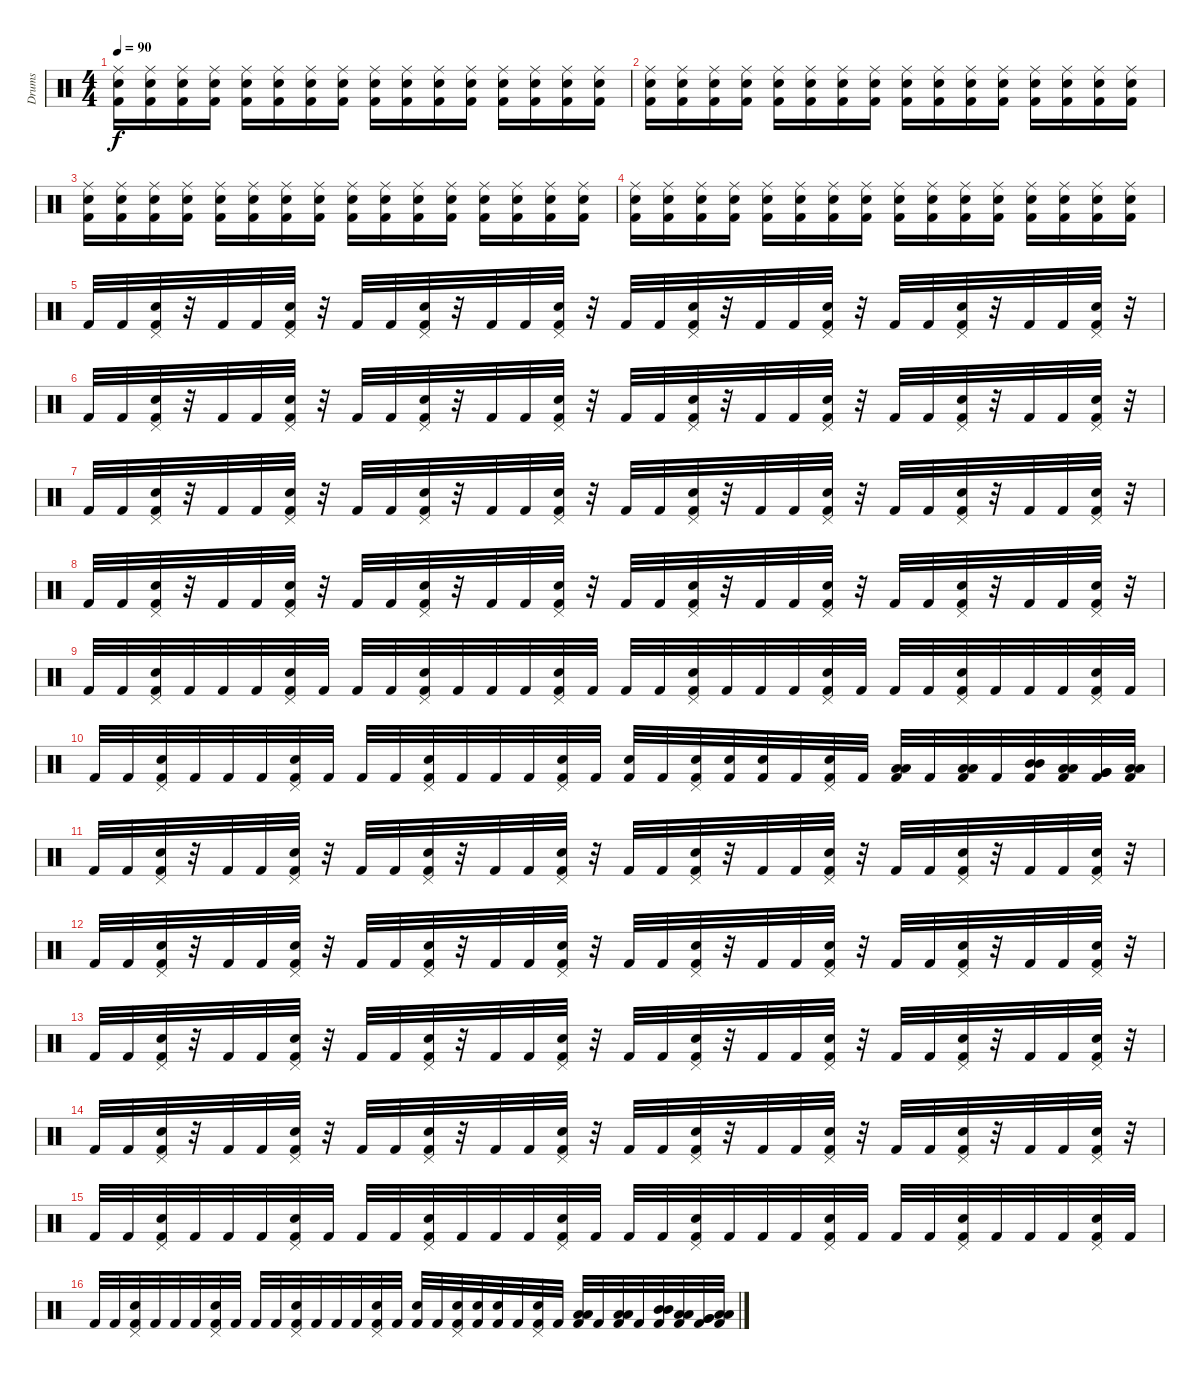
\track ("Drums" "Drums") {instrument percussion}
\staff {score}
\articulation defaults
\ts (4 4)
\tempo 90
\clef neutral
\ks c
("Ride (middle)" "Snare (hit) 2" "Kick (hit) 2").16{dy f} ("Ride (middle)" "Snare (hit) 2" "Kick (hit) 2").16 ("Ride (middle)" "Snare (hit) 2" "Kick (hit) 2").16 ("Ride (middle)" "Snare (hit) 2" "Kick (hit) 2").16 ("Ride (middle)" "Snare (hit) 2" "Kick (hit) 2").16 ("Ride (middle)" "Snare (hit) 2" "Kick (hit) 2").16 ("Ride (middle)" "Snare (hit) 2" "Kick (hit) 2").16 ("Ride (middle)" "Snare (hit) 2" "Kick (hit) 2").16 ("Ride (middle)" "Snare (hit) 2" "Kick (hit) 2").16 ("Ride (middle)" "Snare (hit) 2" "Kick (hit) 2").16 ("Ride (middle)" "Snare (hit) 2" "Kick (hit) 2").16 ("Ride (middle)" "Snare (hit) 2" "Kick (hit) 2").16 ("Ride (middle)" "Snare (hit) 2" "Kick (hit) 2").16 ("Ride (middle)" "Snare (hit) 2" "Kick (hit) 2").16 ("Ride (middle)" "Snare (hit) 2" "Kick (hit) 2").16 ("Ride (middle)" "Snare (hit) 2" "Kick (hit) 2").16 |
("Ride (middle)" "Snare (hit) 2" "Kick (hit) 2").16 ("Ride (middle)" "Snare (hit) 2" "Kick (hit) 2").16 ("Ride (middle)" "Snare (hit) 2" "Kick (hit) 2").16 ("Ride (middle)" "Snare (hit) 2" "Kick (hit) 2").16 ("Ride (middle)" "Snare (hit) 2" "Kick (hit) 2").16 ("Ride (middle)" "Snare (hit) 2" "Kick (hit) 2").16 ("Ride (middle)" "Snare (hit) 2" "Kick (hit) 2").16 ("Ride (middle)" "Snare (hit) 2" "Kick (hit) 2").16 ("Ride (middle)" "Snare (hit) 2" "Kick (hit) 2").16 ("Ride (middle)" "Snare (hit) 2" "Kick (hit) 2").16 ("Ride (middle)" "Snare (hit) 2" "Kick (hit) 2").16 ("Ride (middle)" "Snare (hit) 2" "Kick (hit) 2").16 ("Ride (middle)" "Snare (hit) 2" "Kick (hit) 2").16 ("Ride (middle)" "Snare (hit) 2" "Kick (hit) 2").16 ("Ride (middle)" "Snare (hit) 2" "Kick (hit) 2").16 ("Ride (middle)" "Snare (hit) 2" "Kick (hit) 2").16 |
("Ride (middle)" "Snare (hit) 2" "Kick (hit) 2").16 ("Ride (middle)" "Snare (hit) 2" "Kick (hit) 2").16 ("Ride (middle)" "Snare (hit) 2" "Kick (hit) 2").16 ("Ride (middle)" "Snare (hit) 2" "Kick (hit) 2").16 ("Ride (middle)" "Snare (hit) 2" "Kick (hit) 2").16 ("Ride (middle)" "Snare (hit) 2" "Kick (hit) 2").16 ("Ride (middle)" "Snare (hit) 2" "Kick (hit) 2").16 ("Ride (middle)" "Snare (hit) 2" "Kick (hit) 2").16 ("Ride (middle)" "Snare (hit) 2" "Kick (hit) 2").16 ("Ride (middle)" "Snare (hit) 2" "Kick (hit) 2").16 ("Ride (middle)" "Snare (hit) 2" "Kick (hit) 2").16 ("Ride (middle)" "Snare (hit) 2" "Kick (hit) 2").16 ("Ride (middle)" "Snare (hit) 2" "Kick (hit) 2").16 ("Ride (middle)" "Snare (hit) 2" "Kick (hit) 2").16 ("Ride (middle)" "Snare (hit) 2" "Kick (hit) 2").16 ("Ride (middle)" "Snare (hit) 2" "Kick (hit) 2").16 |
("Ride (middle)" "Snare (hit) 2" "Kick (hit) 2").16 ("Ride (middle)" "Snare (hit) 2" "Kick (hit) 2").16 ("Ride (middle)" "Snare (hit) 2" "Kick (hit) 2").16 ("Ride (middle)" "Snare (hit) 2" "Kick (hit) 2").16 ("Ride (middle)" "Snare (hit) 2" "Kick (hit) 2").16 ("Ride (middle)" "Snare (hit) 2" "Kick (hit) 2").16 ("Ride (middle)" "Snare (hit) 2" "Kick (hit) 2").16 ("Ride (middle)" "Snare (hit) 2" "Kick (hit) 2").16 ("Ride (middle)" "Snare (hit) 2" "Kick (hit) 2").16 ("Ride (middle)" "Snare (hit) 2" "Kick (hit) 2").16 ("Ride (middle)" "Snare (hit) 2" "Kick (hit) 2").16 ("Ride (middle)" "Snare (hit) 2" "Kick (hit) 2").16 ("Ride (middle)" "Snare (hit) 2" "Kick (hit) 2").16 ("Ride (middle)" "Snare (hit) 2" "Kick (hit) 2").16 ("Ride (middle)" "Snare (hit) 2" "Kick (hit) 2").16 ("Ride (middle)" "Snare (hit) 2" "Kick (hit) 2").16 |
"Kick (hit) 2".32 "Kick (hit) 2".32 ("Pedal Hi-Hat (hit)" "Snare (hit) 2" "Kick (hit) 2").32 r.32 "Kick (hit) 2".32 "Kick (hit) 2".32 ("Pedal Hi-Hat (hit)" "Snare (hit) 2" "Kick (hit) 2").32 r.32 "Kick (hit) 2".32 "Kick (hit) 2".32 ("Pedal Hi-Hat (hit)" "Snare (hit) 2" "Kick (hit) 2").32 r.32 "Kick (hit) 2".32 "Kick (hit) 2".32 ("Pedal Hi-Hat (hit)" "Snare (hit) 2" "Kick (hit) 2").32 r.32 "Kick (hit) 2".32 "Kick (hit) 2".32 ("Pedal Hi-Hat (hit)" "Snare (hit) 2" "Kick (hit) 2").32 r.32 "Kick (hit) 2".32 "Kick (hit) 2".32 ("Pedal Hi-Hat (hit)" "Snare (hit) 2" "Kick (hit) 2").32 r.32 "Kick (hit) 2".32 "Kick (hit) 2".32 ("Pedal Hi-Hat (hit)" "Snare (hit) 2" "Kick (hit) 2").32 r.32 "Kick (hit) 2".32 "Kick (hit) 2".32 ("Pedal Hi-Hat (hit)" "Snare (hit) 2" "Kick (hit) 2").32 r.32 |
"Kick (hit) 2".32 "Kick (hit) 2".32 ("Pedal Hi-Hat (hit)" "Snare (hit) 2" "Kick (hit) 2").32 r.32 "Kick (hit) 2".32 "Kick (hit) 2".32 ("Pedal Hi-Hat (hit)" "Snare (hit) 2" "Kick (hit) 2").32 r.32 "Kick (hit) 2".32 "Kick (hit) 2".32 ("Pedal Hi-Hat (hit)" "Snare (hit) 2" "Kick (hit) 2").32 r.32 "Kick (hit) 2".32 "Kick (hit) 2".32 ("Pedal Hi-Hat (hit)" "Snare (hit) 2" "Kick (hit) 2").32 r.32 "Kick (hit) 2".32 "Kick (hit) 2".32 ("Pedal Hi-Hat (hit)" "Snare (hit) 2" "Kick (hit) 2").32 r.32 "Kick (hit) 2".32 "Kick (hit) 2".32 ("Pedal Hi-Hat (hit)" "Snare (hit) 2" "Kick (hit) 2").32 r.32 "Kick (hit) 2".32 "Kick (hit) 2".32 ("Pedal Hi-Hat (hit)" "Snare (hit) 2" "Kick (hit) 2").32 r.32 "Kick (hit) 2".32 "Kick (hit) 2".32 ("Pedal Hi-Hat (hit)" "Snare (hit) 2" "Kick (hit) 2").32 r.32 |
"Kick (hit) 2".32 "Kick (hit) 2".32 ("Pedal Hi-Hat (hit)" "Snare (hit) 2" "Kick (hit) 2").32 r.32 "Kick (hit) 2".32 "Kick (hit) 2".32 ("Pedal Hi-Hat (hit)" "Snare (hit) 2" "Kick (hit) 2").32 r.32 "Kick (hit) 2".32 "Kick (hit) 2".32 ("Pedal Hi-Hat (hit)" "Snare (hit) 2" "Kick (hit) 2").32 r.32 "Kick (hit) 2".32 "Kick (hit) 2".32 ("Pedal Hi-Hat (hit)" "Snare (hit) 2" "Kick (hit) 2").32 r.32 "Kick (hit) 2".32 "Kick (hit) 2".32 ("Pedal Hi-Hat (hit)" "Snare (hit) 2" "Kick (hit) 2").32 r.32 "Kick (hit) 2".32 "Kick (hit) 2".32 ("Pedal Hi-Hat (hit)" "Snare (hit) 2" "Kick (hit) 2").32 r.32 "Kick (hit) 2".32 "Kick (hit) 2".32 ("Pedal Hi-Hat (hit)" "Snare (hit) 2" "Kick (hit) 2").32 r.32 "Kick (hit) 2".32 "Kick (hit) 2".32 ("Pedal Hi-Hat (hit)" "Snare (hit) 2" "Kick (hit) 2").32 r.32 |
"Kick (hit) 2".32 "Kick (hit) 2".32 ("Pedal Hi-Hat (hit)" "Snare (hit) 2" "Kick (hit) 2").32 r.32 "Kick (hit) 2".32 "Kick (hit) 2".32 ("Pedal Hi-Hat (hit)" "Snare (hit) 2" "Kick (hit) 2").32 r.32 "Kick (hit) 2".32 "Kick (hit) 2".32 ("Pedal Hi-Hat (hit)" "Snare (hit) 2" "Kick (hit) 2").32 r.32 "Kick (hit) 2".32 "Kick (hit) 2".32 ("Pedal Hi-Hat (hit)" "Snare (hit) 2" "Kick (hit) 2").32 r.32 "Kick (hit) 2".32 "Kick (hit) 2".32 ("Pedal Hi-Hat (hit)" "Snare (hit) 2" "Kick (hit) 2").32 r.32 "Kick (hit) 2".32 "Kick (hit) 2".32 ("Pedal Hi-Hat (hit)" "Snare (hit) 2" "Kick (hit) 2").32 r.32 "Kick (hit) 2".32 "Kick (hit) 2".32 ("Pedal Hi-Hat (hit)" "Snare (hit) 2" "Kick (hit) 2").32 r.32 "Kick (hit) 2".32 "Kick (hit) 2".32 ("Pedal Hi-Hat (hit)" "Snare (hit) 2" "Kick (hit) 2").32 r.32 |
"Kick (hit) 2".32 "Kick (hit) 2".32 ("Pedal Hi-Hat (hit)" "Snare (hit) 2" "Kick (hit) 2").32 "Kick (hit) 2".32 "Kick (hit) 2".32 "Kick (hit) 2".32 ("Pedal Hi-Hat (hit)" "Snare (hit) 2" "Kick (hit) 2").32 "Kick (hit) 2".32 "Kick (hit) 2".32 "Kick (hit) 2".32 ("Pedal Hi-Hat (hit)" "Snare (hit) 2" "Kick (hit) 2").32 "Kick (hit) 2".32 "Kick (hit) 2".32 "Kick (hit) 2".32 ("Pedal Hi-Hat (hit)" "Snare (hit) 2" "Kick (hit) 2").32 "Kick (hit) 2".32 "Kick (hit) 2".32 "Kick (hit) 2".32 ("Pedal Hi-Hat (hit)" "Snare (hit) 2" "Kick (hit) 2").32 "Kick (hit) 2".32 "Kick (hit) 2".32 "Kick (hit) 2".32 ("Pedal Hi-Hat (hit)" "Snare (hit) 2" "Kick (hit) 2").32 "Kick (hit) 2".32 "Kick (hit) 2".32 "Kick (hit) 2".32 ("Pedal Hi-Hat (hit)" "Snare (hit) 2" "Kick (hit) 2").32 "Kick (hit) 2".32 "Kick (hit) 2".32 "Kick (hit) 2".32 ("Pedal Hi-Hat (hit)" "Snare (hit) 2" "Kick (hit) 2").32 "Kick (hit) 2".32 |
"Kick (hit) 2".32 "Kick (hit) 2".32 ("Pedal Hi-Hat (hit)" "Snare (hit) 2" "Kick (hit) 2").32 "Kick (hit) 2".32 "Kick (hit) 2".32 "Kick (hit) 2".32 ("Pedal Hi-Hat (hit)" "Snare (hit) 2" "Kick (hit) 2").32 "Kick (hit) 2".32 "Kick (hit) 2".32 "Kick (hit) 2".32 ("Pedal Hi-Hat (hit)" "Snare (hit) 2" "Kick (hit) 2").32 "Kick (hit) 2".32 "Kick (hit) 2".32 "Kick (hit) 2".32 ("Pedal Hi-Hat (hit)" "Snare (hit) 2" "Kick (hit) 2").32 "Kick (hit) 2".32 ("Snare (hit) 2" "Kick (hit) 2").32 "Kick (hit) 2".32 ("Pedal Hi-Hat (hit)" "Snare (hit) 2" "Kick (hit) 2").32 ("Snare (hit) 2" "Kick (hit) 2").32 ("Snare (hit) 2" "Kick (hit) 2").32 "Kick (hit) 2".32 ("Pedal Hi-Hat (hit)" "Snare (hit) 2" "Kick (hit) 2").32 "Kick (hit) 2".32 ("Low Tom (hit)" "Low Tom (hit)" "Kick (hit) 2").32 "Kick (hit) 2".32 ("Low Tom (hit)" "Low Tom (hit)" "Kick (hit) 2").32 "Kick (hit) 2".32 ("Mid Tom (hit)" "Mid Tom (hit)" "Kick (hit) 2").32 ("Low Tom (hit)" "Low Tom (hit)" "Kick (hit) 2").32 ("Very Low Tom (hit)" "Very Low Tom (hit)" "Kick (hit) 2").32 ("Low Floor Tom (hit)" "Low Floor Tom (hit)" "Kick (hit) 2").32 |
"Kick (hit) 2".32 "Kick (hit) 2".32 ("Pedal Hi-Hat (hit)" "Snare (hit) 2" "Kick (hit) 2").32 r.32 "Kick (hit) 2".32 "Kick (hit) 2".32 ("Pedal Hi-Hat (hit)" "Snare (hit) 2" "Kick (hit) 2").32 r.32 "Kick (hit) 2".32 "Kick (hit) 2".32 ("Pedal Hi-Hat (hit)" "Snare (hit) 2" "Kick (hit) 2").32 r.32 "Kick (hit) 2".32 "Kick (hit) 2".32 ("Pedal Hi-Hat (hit)" "Snare (hit) 2" "Kick (hit) 2").32 r.32 "Kick (hit) 2".32 "Kick (hit) 2".32 ("Pedal Hi-Hat (hit)" "Snare (hit) 2" "Kick (hit) 2").32 r.32 "Kick (hit) 2".32 "Kick (hit) 2".32 ("Pedal Hi-Hat (hit)" "Snare (hit) 2" "Kick (hit) 2").32 r.32 "Kick (hit) 2".32 "Kick (hit) 2".32 ("Pedal Hi-Hat (hit)" "Snare (hit) 2" "Kick (hit) 2").32 r.32 "Kick (hit) 2".32 "Kick (hit) 2".32 ("Pedal Hi-Hat (hit)" "Snare (hit) 2" "Kick (hit) 2").32 r.32 |
"Kick (hit) 2".32 "Kick (hit) 2".32 ("Pedal Hi-Hat (hit)" "Snare (hit) 2" "Kick (hit) 2").32 r.32 "Kick (hit) 2".32 "Kick (hit) 2".32 ("Pedal Hi-Hat (hit)" "Snare (hit) 2" "Kick (hit) 2").32 r.32 "Kick (hit) 2".32 "Kick (hit) 2".32 ("Pedal Hi-Hat (hit)" "Snare (hit) 2" "Kick (hit) 2").32 r.32 "Kick (hit) 2".32 "Kick (hit) 2".32 ("Pedal Hi-Hat (hit)" "Snare (hit) 2" "Kick (hit) 2").32 r.32 "Kick (hit) 2".32 "Kick (hit) 2".32 ("Pedal Hi-Hat (hit)" "Snare (hit) 2" "Kick (hit) 2").32 r.32 "Kick (hit) 2".32 "Kick (hit) 2".32 ("Pedal Hi-Hat (hit)" "Snare (hit) 2" "Kick (hit) 2").32 r.32 "Kick (hit) 2".32 "Kick (hit) 2".32 ("Pedal Hi-Hat (hit)" "Snare (hit) 2" "Kick (hit) 2").32 r.32 "Kick (hit) 2".32 "Kick (hit) 2".32 ("Pedal Hi-Hat (hit)" "Snare (hit) 2" "Kick (hit) 2").32 r.32 |
"Kick (hit) 2".32 "Kick (hit) 2".32 ("Pedal Hi-Hat (hit)" "Snare (hit) 2" "Kick (hit) 2").32 r.32 "Kick (hit) 2".32 "Kick (hit) 2".32 ("Pedal Hi-Hat (hit)" "Snare (hit) 2" "Kick (hit) 2").32 r.32 "Kick (hit) 2".32 "Kick (hit) 2".32 ("Pedal Hi-Hat (hit)" "Snare (hit) 2" "Kick (hit) 2").32 r.32 "Kick (hit) 2".32 "Kick (hit) 2".32 ("Pedal Hi-Hat (hit)" "Snare (hit) 2" "Kick (hit) 2").32 r.32 "Kick (hit) 2".32 "Kick (hit) 2".32 ("Pedal Hi-Hat (hit)" "Snare (hit) 2" "Kick (hit) 2").32 r.32 "Kick (hit) 2".32 "Kick (hit) 2".32 ("Pedal Hi-Hat (hit)" "Snare (hit) 2" "Kick (hit) 2").32 r.32 "Kick (hit) 2".32 "Kick (hit) 2".32 ("Pedal Hi-Hat (hit)" "Snare (hit) 2" "Kick (hit) 2").32 r.32 "Kick (hit) 2".32 "Kick (hit) 2".32 ("Pedal Hi-Hat (hit)" "Snare (hit) 2" "Kick (hit) 2").32 r.32 |
"Kick (hit) 2".32 "Kick (hit) 2".32 ("Pedal Hi-Hat (hit)" "Snare (hit) 2" "Kick (hit) 2").32 r.32 "Kick (hit) 2".32 "Kick (hit) 2".32 ("Pedal Hi-Hat (hit)" "Snare (hit) 2" "Kick (hit) 2").32 r.32 "Kick (hit) 2".32 "Kick (hit) 2".32 ("Pedal Hi-Hat (hit)" "Snare (hit) 2" "Kick (hit) 2").32 r.32 "Kick (hit) 2".32 "Kick (hit) 2".32 ("Pedal Hi-Hat (hit)" "Snare (hit) 2" "Kick (hit) 2").32 r.32 "Kick (hit) 2".32 "Kick (hit) 2".32 ("Pedal Hi-Hat (hit)" "Snare (hit) 2" "Kick (hit) 2").32 r.32 "Kick (hit) 2".32 "Kick (hit) 2".32 ("Pedal Hi-Hat (hit)" "Snare (hit) 2" "Kick (hit) 2").32 r.32 "Kick (hit) 2".32 "Kick (hit) 2".32 ("Pedal Hi-Hat (hit)" "Snare (hit) 2" "Kick (hit) 2").32 r.32 "Kick (hit) 2".32 "Kick (hit) 2".32 ("Pedal Hi-Hat (hit)" "Snare (hit) 2" "Kick (hit) 2").32 r.32 |
"Kick (hit) 2".32 "Kick (hit) 2".32 ("Pedal Hi-Hat (hit)" "Snare (hit) 2" "Kick (hit) 2").32 "Kick (hit) 2".32 "Kick (hit) 2".32 "Kick (hit) 2".32 ("Pedal Hi-Hat (hit)" "Snare (hit) 2" "Kick (hit) 2").32 "Kick (hit) 2".32 "Kick (hit) 2".32 "Kick (hit) 2".32 ("Pedal Hi-Hat (hit)" "Snare (hit) 2" "Kick (hit) 2").32 "Kick (hit) 2".32 "Kick (hit) 2".32 "Kick (hit) 2".32 ("Pedal Hi-Hat (hit)" "Snare (hit) 2" "Kick (hit) 2").32 "Kick (hit) 2".32 "Kick (hit) 2".32 "Kick (hit) 2".32 ("Pedal Hi-Hat (hit)" "Snare (hit) 2" "Kick (hit) 2").32 "Kick (hit) 2".32 "Kick (hit) 2".32 "Kick (hit) 2".32 ("Pedal Hi-Hat (hit)" "Snare (hit) 2" "Kick (hit) 2").32 "Kick (hit) 2".32 "Kick (hit) 2".32 "Kick (hit) 2".32 ("Pedal Hi-Hat (hit)" "Snare (hit) 2" "Kick (hit) 2").32 "Kick (hit) 2".32 "Kick (hit) 2".32 "Kick (hit) 2".32 ("Pedal Hi-Hat (hit)" "Snare (hit) 2" "Kick (hit) 2").32 "Kick (hit) 2".32 |
"Kick (hit) 2".32 "Kick (hit) 2".32 ("Pedal Hi-Hat (hit)" "Snare (hit) 2" "Kick (hit) 2").32 "Kick (hit) 2".32 "Kick (hit) 2".32 "Kick (hit) 2".32 ("Pedal Hi-Hat (hit)" "Snare (hit) 2" "Kick (hit) 2").32 "Kick (hit) 2".32 "Kick (hit) 2".32 "Kick (hit) 2".32 ("Pedal Hi-Hat (hit)" "Snare (hit) 2" "Kick (hit) 2").32 "Kick (hit) 2".32 "Kick (hit) 2".32 "Kick (hit) 2".32 ("Pedal Hi-Hat (hit)" "Snare (hit) 2" "Kick (hit) 2").32 "Kick (hit) 2".32 ("Snare (hit) 2" "Kick (hit) 2").32 "Kick (hit) 2".32 ("Pedal Hi-Hat (hit)" "Snare (hit) 2" "Kick (hit) 2").32 ("Snare (hit) 2" "Kick (hit) 2").32 ("Snare (hit) 2" "Kick (hit) 2").32 "Kick (hit) 2".32 ("Pedal Hi-Hat (hit)" "Snare (hit) 2" "Kick (hit) 2").32 "Kick (hit) 2".32 ("Low Tom (hit)" "Low Tom (hit)" "Kick (hit) 2").32 "Kick (hit) 2".32 ("Low Tom (hit)" "Low Tom (hit)" "Kick (hit) 2").32 "Kick (hit) 2".32 ("Mid Tom (hit)" "Mid Tom (hit)" "Kick (hit) 2").32 ("Low Tom (hit)" "Low Tom (hit)" "Kick (hit) 2").32 ("Very Low Tom (hit)" "Very Low Tom (hit)" "Kick (hit) 2").32 ("Low Floor Tom (hit)" "Low Floor Tom (hit)" "Kick (hit) 2").32
